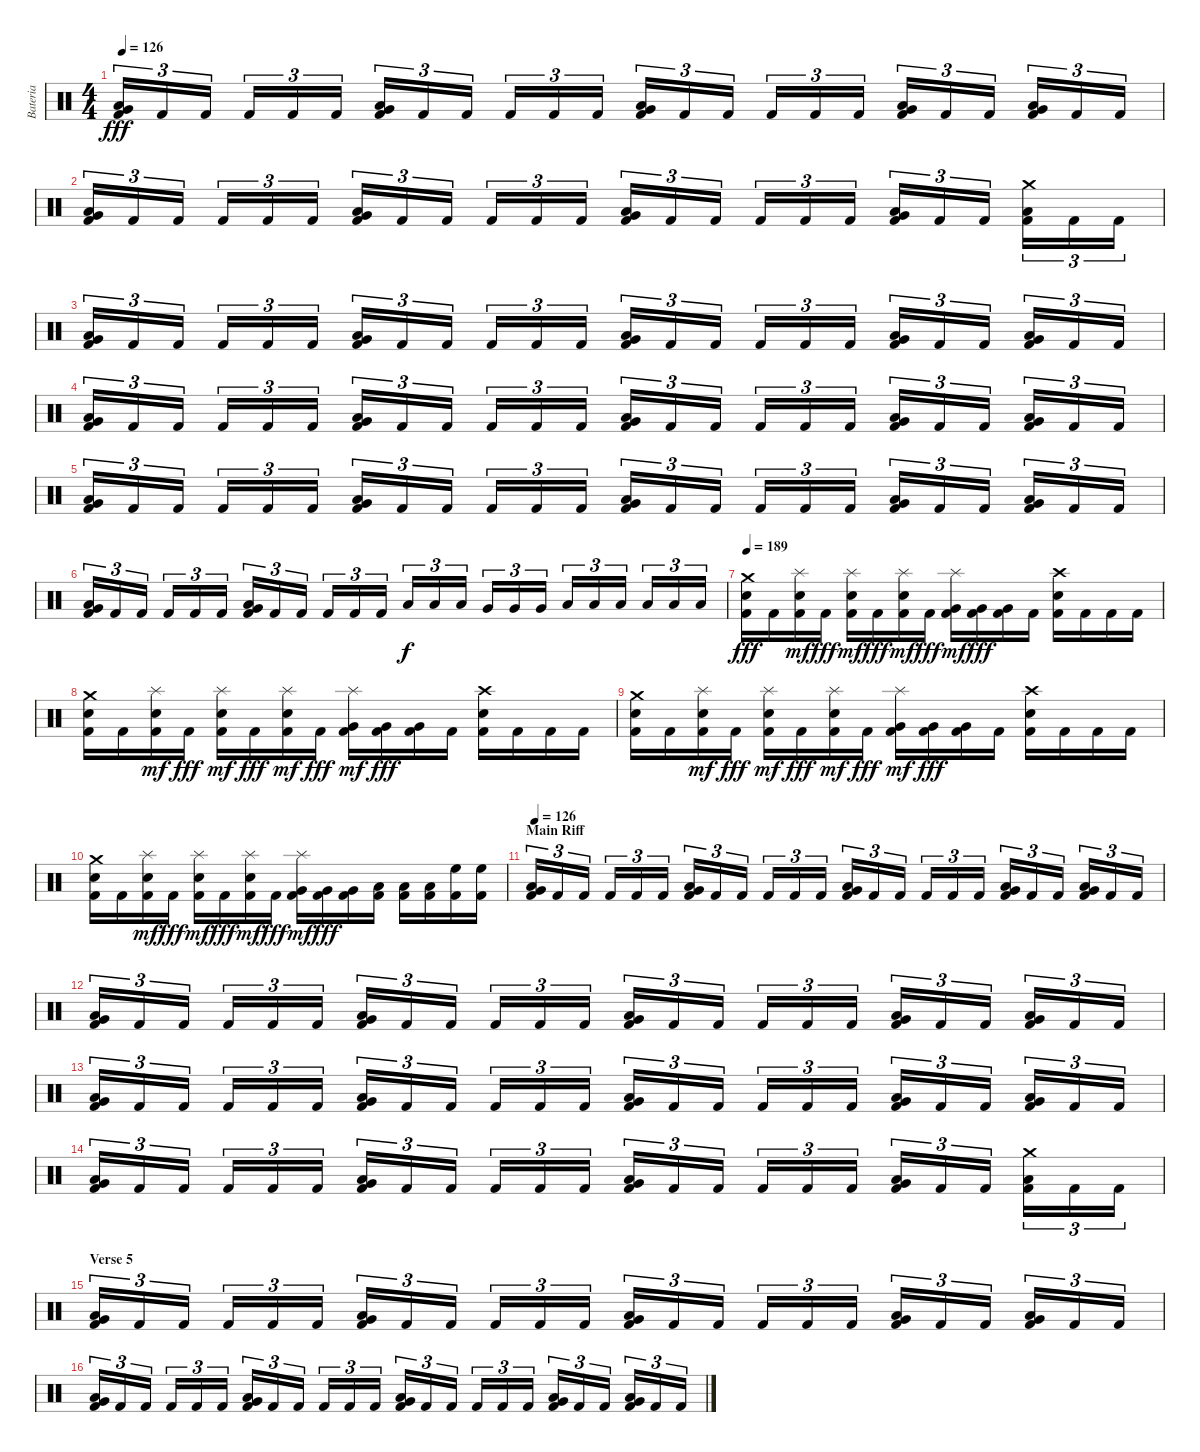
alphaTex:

\track ("Bateria" "Bateria") {instrument percussion}
\staff {score}
\articulation defaults
\ts (4 4)
\tempo 126
\clef neutral
\ks c
("Kick (hit) 2" "Low Floor Tom (hit)" "Very Low Tom (hit)").16{tu (3 2) dy fff} "Kick (hit) 2".16{tu (3 2)} "Kick (hit) 2".16{tu (3 2)} "Kick (hit) 2".16{tu (3 2)} "Kick (hit) 2".16{tu (3 2)} "Kick (hit) 2".16{tu (3 2)} ("Kick (hit) 2" "Low Floor Tom (hit)" "Very Low Tom (hit)").16{tu (3 2)} "Kick (hit) 2".16{tu (3 2)} "Kick (hit) 2".16{tu (3 2)} "Kick (hit) 2".16{tu (3 2)} "Kick (hit) 2".16{tu (3 2)} "Kick (hit) 2".16{tu (3 2)} ("Kick (hit) 2" "Low Floor Tom (hit)" "Very Low Tom (hit)").16{tu (3 2)} "Kick (hit) 2".16{tu (3 2)} "Kick (hit) 2".16{tu (3 2)} "Kick (hit) 2".16{tu (3 2)} "Kick (hit) 2".16{tu (3 2)} "Kick (hit) 2".16{tu (3 2)} ("Kick (hit) 2" "Low Floor Tom (hit)" "Very Low Tom (hit)").16{tu (3 2)} "Kick (hit) 2".16{tu (3 2)} "Kick (hit) 2".16{tu (3 2)} ("Kick (hit) 2" "Low Floor Tom (hit)" "Very Low Tom (hit)").16{tu (3 2)} "Kick (hit) 2".16{tu (3 2)} "Kick (hit) 2".16{tu (3 2)} |
("Kick (hit) 2" "Low Floor Tom (hit)" "Very Low Tom (hit)").16{tu (3 2)} "Kick (hit) 2".16{tu (3 2)} "Kick (hit) 2".16{tu (3 2)} "Kick (hit) 2".16{tu (3 2)} "Kick (hit) 2".16{tu (3 2)} "Kick (hit) 2".16{tu (3 2)} ("Kick (hit) 2" "Low Floor Tom (hit)" "Very Low Tom (hit)").16{tu (3 2)} "Kick (hit) 2".16{tu (3 2)} "Kick (hit) 2".16{tu (3 2)} "Kick (hit) 2".16{tu (3 2)} "Kick (hit) 2".16{tu (3 2)} "Kick (hit) 2".16{tu (3 2)} ("Kick (hit) 2" "Low Floor Tom (hit)" "Very Low Tom (hit)").16{tu (3 2)} "Kick (hit) 2".16{tu (3 2)} "Kick (hit) 2".16{tu (3 2)} "Kick (hit) 2".16{tu (3 2)} "Kick (hit) 2".16{tu (3 2)} "Kick (hit) 2".16{tu (3 2)} ("Kick (hit) 2" "Low Floor Tom (hit)" "Very Low Tom (hit)").16{tu (3 2)} "Kick (hit) 2".16{tu (3 2)} "Kick (hit) 2".16{tu (3 2)} ("Kick (hit) 2" "Low Floor Tom (hit)" "Crash medium (hit)").16{tu (3 2)} "Kick (hit) 2".16{tu (3 2)} "Kick (hit) 2".16{tu (3 2)} |
("Kick (hit) 2" "Low Floor Tom (hit)" "Very Low Tom (hit)").16{tu (3 2)} "Kick (hit) 2".16{tu (3 2)} "Kick (hit) 2".16{tu (3 2)} "Kick (hit) 2".16{tu (3 2)} "Kick (hit) 2".16{tu (3 2)} "Kick (hit) 2".16{tu (3 2)} ("Kick (hit) 2" "Low Floor Tom (hit)" "Very Low Tom (hit)").16{tu (3 2)} "Kick (hit) 2".16{tu (3 2)} "Kick (hit) 2".16{tu (3 2)} "Kick (hit) 2".16{tu (3 2)} "Kick (hit) 2".16{tu (3 2)} "Kick (hit) 2".16{tu (3 2)} ("Kick (hit) 2" "Low Floor Tom (hit)" "Very Low Tom (hit)").16{tu (3 2)} "Kick (hit) 2".16{tu (3 2)} "Kick (hit) 2".16{tu (3 2)} "Kick (hit) 2".16{tu (3 2)} "Kick (hit) 2".16{tu (3 2)} "Kick (hit) 2".16{tu (3 2)} ("Kick (hit) 2" "Low Floor Tom (hit)" "Very Low Tom (hit)").16{tu (3 2)} "Kick (hit) 2".16{tu (3 2)} "Kick (hit) 2".16{tu (3 2)} ("Kick (hit) 2" "Low Floor Tom (hit)" "Very Low Tom (hit)").16{tu (3 2)} "Kick (hit) 2".16{tu (3 2)} "Kick (hit) 2".16{tu (3 2)} |
("Kick (hit) 2" "Low Floor Tom (hit)" "Very Low Tom (hit)").16{tu (3 2)} "Kick (hit) 2".16{tu (3 2)} "Kick (hit) 2".16{tu (3 2)} "Kick (hit) 2".16{tu (3 2)} "Kick (hit) 2".16{tu (3 2)} "Kick (hit) 2".16{tu (3 2)} ("Kick (hit) 2" "Low Floor Tom (hit)" "Very Low Tom (hit)").16{tu (3 2)} "Kick (hit) 2".16{tu (3 2)} "Kick (hit) 2".16{tu (3 2)} "Kick (hit) 2".16{tu (3 2)} "Kick (hit) 2".16{tu (3 2)} "Kick (hit) 2".16{tu (3 2)} ("Kick (hit) 2" "Low Floor Tom (hit)" "Very Low Tom (hit)").16{tu (3 2)} "Kick (hit) 2".16{tu (3 2)} "Kick (hit) 2".16{tu (3 2)} "Kick (hit) 2".16{tu (3 2)} "Kick (hit) 2".16{tu (3 2)} "Kick (hit) 2".16{tu (3 2)} ("Kick (hit) 2" "Low Floor Tom (hit)" "Very Low Tom (hit)").16{tu (3 2)} "Kick (hit) 2".16{tu (3 2)} "Kick (hit) 2".16{tu (3 2)} ("Kick (hit) 2" "Low Floor Tom (hit)" "Very Low Tom (hit)").16{tu (3 2)} "Kick (hit) 2".16{tu (3 2)} "Kick (hit) 2".16{tu (3 2)} |
("Kick (hit) 2" "Low Floor Tom (hit)" "Very Low Tom (hit)").16{tu (3 2)} "Kick (hit) 2".16{tu (3 2)} "Kick (hit) 2".16{tu (3 2)} "Kick (hit) 2".16{tu (3 2)} "Kick (hit) 2".16{tu (3 2)} "Kick (hit) 2".16{tu (3 2)} ("Kick (hit) 2" "Low Floor Tom (hit)" "Very Low Tom (hit)").16{tu (3 2)} "Kick (hit) 2".16{tu (3 2)} "Kick (hit) 2".16{tu (3 2)} "Kick (hit) 2".16{tu (3 2)} "Kick (hit) 2".16{tu (3 2)} "Kick (hit) 2".16{tu (3 2)} ("Kick (hit) 2" "Low Floor Tom (hit)" "Very Low Tom (hit)").16{tu (3 2)} "Kick (hit) 2".16{tu (3 2)} "Kick (hit) 2".16{tu (3 2)} "Kick (hit) 2".16{tu (3 2)} "Kick (hit) 2".16{tu (3 2)} "Kick (hit) 2".16{tu (3 2)} ("Kick (hit) 2" "Low Floor Tom (hit)" "Very Low Tom (hit)").16{tu (3 2)} "Kick (hit) 2".16{tu (3 2)} "Kick (hit) 2".16{tu (3 2)} ("Kick (hit) 2" "Low Floor Tom (hit)" "Very Low Tom (hit)").16{tu (3 2)} "Kick (hit) 2".16{tu (3 2)} "Kick (hit) 2".16{tu (3 2)} |
("Kick (hit) 2" "Low Floor Tom (hit)" "Very Low Tom (hit)").16{tu (3 2)} "Kick (hit) 2".16{tu (3 2)} "Kick (hit) 2".16{tu (3 2)} "Kick (hit) 2".16{tu (3 2)} "Kick (hit) 2".16{tu (3 2)} "Kick (hit) 2".16{tu (3 2)} ("Kick (hit) 2" "Low Floor Tom (hit)" "Very Low Tom (hit)").16{tu (3 2)} "Kick (hit) 2".16{tu (3 2)} "Kick (hit) 2".16{tu (3 2)} "Kick (hit) 2".16{tu (3 2)} "Kick (hit) 2".16{tu (3 2)} "Kick (hit) 2".16{tu (3 2)} "Low Tom (hit)".16{tu (3 2) dy f} "Low Tom (hit)".16{tu (3 2)} "Low Tom (hit)".16{tu (3 2)} "Very Low Tom (hit)".16{tu (3 2)} "Very Low Tom (hit)".16{tu (3 2)} "Very Low Tom (hit)".16{tu (3 2)} "Low Tom (hit)".16{tu (3 2)} "Low Tom (hit)".16{tu (3 2)} "Low Tom (hit)".16{tu (3 2)} "Low Floor Tom (hit)".16{tu (3 2)} "Low Floor Tom (hit)".16{tu (3 2)} "Low Floor Tom (hit)".16{tu (3 2)} |
\tempo 189
("Kick (hit) 2" "Electric Snare (hit)" "Crash medium (hit)").16{dy fff} "Kick (hit) 2".16 ("Kick (hit) 2" "Electric Snare (hit)" "Splash (hit)").16{dy mf} "Kick (hit) 2".16{dy fff} ("Kick (hit) 2" "Electric Snare (hit)" "Splash (hit)").16{dy mf} "Kick (hit) 2".16{dy fff} ("Kick (hit) 2" "Electric Snare (hit)" "Splash (hit)").16{dy mf} "Kick (hit) 2".16{dy fff} ("Kick (hit) 2" "Very Low Tom (hit)" "Splash (hit)").16{dy mf} ("Kick (hit) 2" "Very Low Tom (hit)").16{dy fff} ("Kick (hit) 2" "Very Low Tom (hit)").16 "Kick (hit) 2".16 ("Kick (hit) 2" "Electric Snare (hit)" "Crash high (hit)").16 "Kick (hit) 2".16 "Kick (hit) 2".16 "Kick (hit) 2".16 |
("Kick (hit) 2" "Electric Snare (hit)" "Crash medium (hit)").16 "Kick (hit) 2".16 ("Kick (hit) 2" "Electric Snare (hit)" "Splash (hit)").16{dy mf} "Kick (hit) 2".16{dy fff} ("Kick (hit) 2" "Electric Snare (hit)" "Splash (hit)").16{dy mf} "Kick (hit) 2".16{dy fff} ("Kick (hit) 2" "Electric Snare (hit)" "Splash (hit)").16{dy mf} "Kick (hit) 2".16{dy fff} ("Kick (hit) 2" "Very Low Tom (hit)" "Splash (hit)").16{dy mf} ("Kick (hit) 2" "Very Low Tom (hit)").16{dy fff} ("Kick (hit) 2" "Very Low Tom (hit)").16 "Kick (hit) 2".16 ("Kick (hit) 2" "Electric Snare (hit)" "Crash high (hit)").16 "Kick (hit) 2".16 "Kick (hit) 2".16 "Kick (hit) 2".16 |
("Kick (hit) 2" "Electric Snare (hit)" "Crash medium (hit)").16 "Kick (hit) 2".16 ("Kick (hit) 2" "Electric Snare (hit)" "Splash (hit)").16{dy mf} "Kick (hit) 2".16{dy fff} ("Kick (hit) 2" "Electric Snare (hit)" "Splash (hit)").16{dy mf} "Kick (hit) 2".16{dy fff} ("Kick (hit) 2" "Electric Snare (hit)" "Splash (hit)").16{dy mf} "Kick (hit) 2".16{dy fff} ("Kick (hit) 2" "Very Low Tom (hit)" "Splash (hit)").16{dy mf} ("Kick (hit) 2" "Very Low Tom (hit)").16{dy fff} ("Kick (hit) 2" "Very Low Tom (hit)").16 "Kick (hit) 2".16 ("Kick (hit) 2" "Electric Snare (hit)" "Crash high (hit)").16 "Kick (hit) 2".16 "Kick (hit) 2".16 "Kick (hit) 2".16 |
("Kick (hit) 2" "Electric Snare (hit)" "Crash medium (hit)").16 "Kick (hit) 2".16 ("Kick (hit) 2" "Electric Snare (hit)" "Splash (hit)").16{dy mf} "Kick (hit) 2".16{dy fff} ("Kick (hit) 2" "Electric Snare (hit)" "Splash (hit)").16{dy mf} "Kick (hit) 2".16{dy fff} ("Kick (hit) 2" "Electric Snare (hit)" "Splash (hit)").16{dy mf} "Kick (hit) 2".16{dy fff} ("Kick (hit) 2" "Very Low Tom (hit)" "Splash (hit)").16{dy mf} ("Kick (hit) 2" "Very Low Tom (hit)").16{dy fff} ("Kick (hit) 2" "Very Low Tom (hit)").16 ("Kick (hit) 2" "Low Floor Tom (hit)").16 ("Kick (hit) 2" "Low Floor Tom (hit)").16 ("Kick (hit) 2" "Low Floor Tom (hit)").16 ("Kick (hit) 2" "High Floor Tom (hit)").16 ("Kick (hit) 2" "High Floor Tom (hit)").16 |
\section ("" "Main Riff")
\tempo 126
("Kick (hit) 2" "Low Floor Tom (hit)" "Very Low Tom (hit)").16{tu (3 2)} "Kick (hit) 2".16{tu (3 2)} "Kick (hit) 2".16{tu (3 2)} "Kick (hit) 2".16{tu (3 2)} "Kick (hit) 2".16{tu (3 2)} "Kick (hit) 2".16{tu (3 2)} ("Kick (hit) 2" "Low Floor Tom (hit)" "Very Low Tom (hit)").16{tu (3 2)} "Kick (hit) 2".16{tu (3 2)} "Kick (hit) 2".16{tu (3 2)} "Kick (hit) 2".16{tu (3 2)} "Kick (hit) 2".16{tu (3 2)} "Kick (hit) 2".16{tu (3 2)} ("Kick (hit) 2" "Low Floor Tom (hit)" "Very Low Tom (hit)").16{tu (3 2)} "Kick (hit) 2".16{tu (3 2)} "Kick (hit) 2".16{tu (3 2)} "Kick (hit) 2".16{tu (3 2)} "Kick (hit) 2".16{tu (3 2)} "Kick (hit) 2".16{tu (3 2)} ("Kick (hit) 2" "Low Floor Tom (hit)" "Very Low Tom (hit)").16{tu (3 2)} "Kick (hit) 2".16{tu (3 2)} "Kick (hit) 2".16{tu (3 2)} ("Kick (hit) 2" "Low Floor Tom (hit)" "Very Low Tom (hit)").16{tu (3 2)} "Kick (hit) 2".16{tu (3 2)} "Kick (hit) 2".16{tu (3 2)} |
("Kick (hit) 2" "Low Floor Tom (hit)" "Very Low Tom (hit)").16{tu (3 2)} "Kick (hit) 2".16{tu (3 2)} "Kick (hit) 2".16{tu (3 2)} "Kick (hit) 2".16{tu (3 2)} "Kick (hit) 2".16{tu (3 2)} "Kick (hit) 2".16{tu (3 2)} ("Kick (hit) 2" "Low Floor Tom (hit)" "Very Low Tom (hit)").16{tu (3 2)} "Kick (hit) 2".16{tu (3 2)} "Kick (hit) 2".16{tu (3 2)} "Kick (hit) 2".16{tu (3 2)} "Kick (hit) 2".16{tu (3 2)} "Kick (hit) 2".16{tu (3 2)} ("Kick (hit) 2" "Low Floor Tom (hit)" "Very Low Tom (hit)").16{tu (3 2)} "Kick (hit) 2".16{tu (3 2)} "Kick (hit) 2".16{tu (3 2)} "Kick (hit) 2".16{tu (3 2)} "Kick (hit) 2".16{tu (3 2)} "Kick (hit) 2".16{tu (3 2)} ("Kick (hit) 2" "Low Floor Tom (hit)" "Very Low Tom (hit)").16{tu (3 2)} "Kick (hit) 2".16{tu (3 2)} "Kick (hit) 2".16{tu (3 2)} ("Kick (hit) 2" "Low Floor Tom (hit)" "Very Low Tom (hit)").16{tu (3 2)} "Kick (hit) 2".16{tu (3 2)} "Kick (hit) 2".16{tu (3 2)} |
("Kick (hit) 2" "Low Floor Tom (hit)" "Very Low Tom (hit)").16{tu (3 2)} "Kick (hit) 2".16{tu (3 2)} "Kick (hit) 2".16{tu (3 2)} "Kick (hit) 2".16{tu (3 2)} "Kick (hit) 2".16{tu (3 2)} "Kick (hit) 2".16{tu (3 2)} ("Kick (hit) 2" "Low Floor Tom (hit)" "Very Low Tom (hit)").16{tu (3 2)} "Kick (hit) 2".16{tu (3 2)} "Kick (hit) 2".16{tu (3 2)} "Kick (hit) 2".16{tu (3 2)} "Kick (hit) 2".16{tu (3 2)} "Kick (hit) 2".16{tu (3 2)} ("Kick (hit) 2" "Low Floor Tom (hit)" "Very Low Tom (hit)").16{tu (3 2)} "Kick (hit) 2".16{tu (3 2)} "Kick (hit) 2".16{tu (3 2)} "Kick (hit) 2".16{tu (3 2)} "Kick (hit) 2".16{tu (3 2)} "Kick (hit) 2".16{tu (3 2)} ("Kick (hit) 2" "Low Floor Tom (hit)" "Very Low Tom (hit)").16{tu (3 2)} "Kick (hit) 2".16{tu (3 2)} "Kick (hit) 2".16{tu (3 2)} ("Kick (hit) 2" "Low Floor Tom (hit)" "Very Low Tom (hit)").16{tu (3 2)} "Kick (hit) 2".16{tu (3 2)} "Kick (hit) 2".16{tu (3 2)} |
("Kick (hit) 2" "Low Floor Tom (hit)" "Very Low Tom (hit)").16{tu (3 2)} "Kick (hit) 2".16{tu (3 2)} "Kick (hit) 2".16{tu (3 2)} "Kick (hit) 2".16{tu (3 2)} "Kick (hit) 2".16{tu (3 2)} "Kick (hit) 2".16{tu (3 2)} ("Kick (hit) 2" "Low Floor Tom (hit)" "Very Low Tom (hit)").16{tu (3 2)} "Kick (hit) 2".16{tu (3 2)} "Kick (hit) 2".16{tu (3 2)} "Kick (hit) 2".16{tu (3 2)} "Kick (hit) 2".16{tu (3 2)} "Kick (hit) 2".16{tu (3 2)} ("Kick (hit) 2" "Low Floor Tom (hit)" "Very Low Tom (hit)").16{tu (3 2)} "Kick (hit) 2".16{tu (3 2)} "Kick (hit) 2".16{tu (3 2)} "Kick (hit) 2".16{tu (3 2)} "Kick (hit) 2".16{tu (3 2)} "Kick (hit) 2".16{tu (3 2)} ("Kick (hit) 2" "Low Floor Tom (hit)" "Very Low Tom (hit)").16{tu (3 2)} "Kick (hit) 2".16{tu (3 2)} "Kick (hit) 2".16{tu (3 2)} ("Kick (hit) 2" "Low Floor Tom (hit)" "Crash medium (hit)").16{tu (3 2)} "Kick (hit) 2".16{tu (3 2)} "Kick (hit) 2".16{tu (3 2)} |
\section ("" "Verse 5")
("Kick (hit) 2" "Low Floor Tom (hit)" "Very Low Tom (hit)").16{tu (3 2)} "Kick (hit) 2".16{tu (3 2)} "Kick (hit) 2".16{tu (3 2)} "Kick (hit) 2".16{tu (3 2)} "Kick (hit) 2".16{tu (3 2)} "Kick (hit) 2".16{tu (3 2)} ("Kick (hit) 2" "Low Floor Tom (hit)" "Very Low Tom (hit)").16{tu (3 2)} "Kick (hit) 2".16{tu (3 2)} "Kick (hit) 2".16{tu (3 2)} "Kick (hit) 2".16{tu (3 2)} "Kick (hit) 2".16{tu (3 2)} "Kick (hit) 2".16{tu (3 2)} ("Kick (hit) 2" "Low Floor Tom (hit)" "Very Low Tom (hit)").16{tu (3 2)} "Kick (hit) 2".16{tu (3 2)} "Kick (hit) 2".16{tu (3 2)} "Kick (hit) 2".16{tu (3 2)} "Kick (hit) 2".16{tu (3 2)} "Kick (hit) 2".16{tu (3 2)} ("Kick (hit) 2" "Low Floor Tom (hit)" "Very Low Tom (hit)").16{tu (3 2)} "Kick (hit) 2".16{tu (3 2)} "Kick (hit) 2".16{tu (3 2)} ("Kick (hit) 2" "Low Floor Tom (hit)" "Very Low Tom (hit)").16{tu (3 2)} "Kick (hit) 2".16{tu (3 2)} "Kick (hit) 2".16{tu (3 2)} |
("Kick (hit) 2" "Low Floor Tom (hit)" "Very Low Tom (hit)").16{tu (3 2)} "Kick (hit) 2".16{tu (3 2)} "Kick (hit) 2".16{tu (3 2)} "Kick (hit) 2".16{tu (3 2)} "Kick (hit) 2".16{tu (3 2)} "Kick (hit) 2".16{tu (3 2)} ("Kick (hit) 2" "Low Floor Tom (hit)" "Very Low Tom (hit)").16{tu (3 2)} "Kick (hit) 2".16{tu (3 2)} "Kick (hit) 2".16{tu (3 2)} "Kick (hit) 2".16{tu (3 2)} "Kick (hit) 2".16{tu (3 2)} "Kick (hit) 2".16{tu (3 2)} ("Kick (hit) 2" "Low Floor Tom (hit)" "Very Low Tom (hit)").16{tu (3 2)} "Kick (hit) 2".16{tu (3 2)} "Kick (hit) 2".16{tu (3 2)} "Kick (hit) 2".16{tu (3 2)} "Kick (hit) 2".16{tu (3 2)} "Kick (hit) 2".16{tu (3 2)} ("Kick (hit) 2" "Low Floor Tom (hit)" "Very Low Tom (hit)").16{tu (3 2)} "Kick (hit) 2".16{tu (3 2)} "Kick (hit) 2".16{tu (3 2)} ("Kick (hit) 2" "Low Floor Tom (hit)" "Very Low Tom (hit)").16{tu (3 2)} "Kick (hit) 2".16{tu (3 2)} "Kick (hit) 2".16{tu (3 2)}
